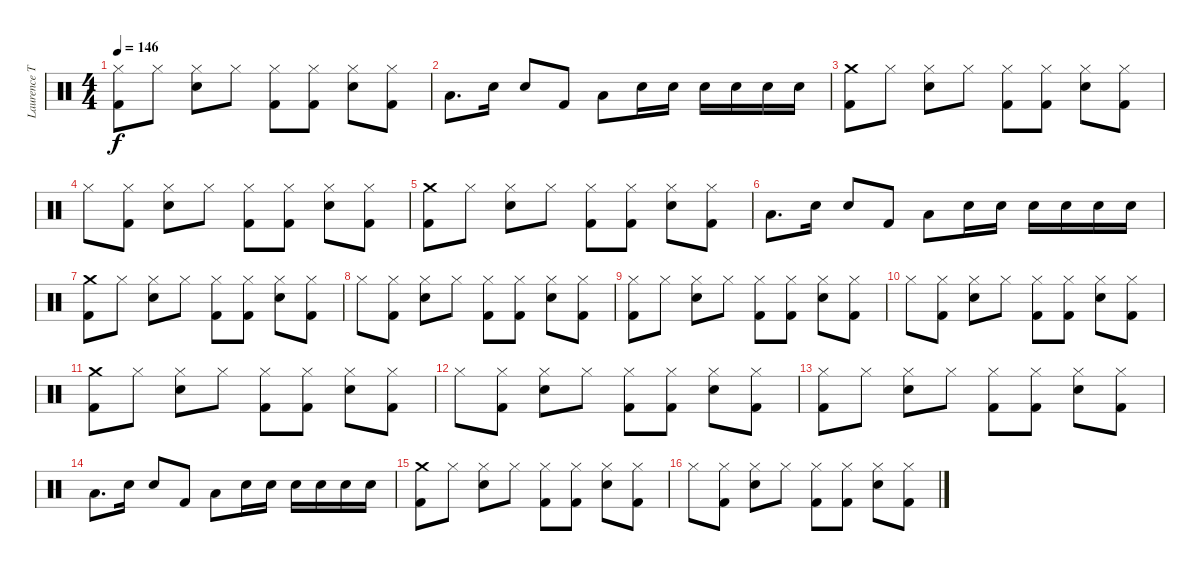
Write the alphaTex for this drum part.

\track ("Laurence Tolhurst drums" "Laurence T") {instrument percussion}
\staff {score}
\articulation defaults
\ts (4 4)
\tempo 146
\clef neutral
\ks c
("Hi-Hat (closed)" "Kick (hit) 2").8{dy f} "Hi-Hat (closed)".8 ("Hi-Hat (closed)" "Snare (hit) 2").8 "Hi-Hat (closed)".8 ("Hi-Hat (closed)" "Kick (hit) 2").8 ("Hi-Hat (closed)" "Kick (hit) 2").8 ("Hi-Hat (closed)" "Snare (hit) 2").8 ("Hi-Hat (closed)" "Kick (hit) 2").8 |
"Low Tom (hit)".8{d} "Snare (hit) 2".16 "Snare (hit) 2".8 "Kick (hit) 2".8 "Low Tom (hit)".8 "Snare (hit) 2".16 "Snare (hit) 2".16 "Snare (hit) 2".16 "Snare (hit) 2".16 "Snare (hit) 2".16 "Snare (hit) 2".16 |
("Crash medium (hit)" "Kick (hit) 2").8 "Hi-Hat (closed)".8 ("Hi-Hat (closed)" "Snare (hit) 2").8 "Hi-Hat (closed)".8 ("Hi-Hat (closed)" "Kick (hit) 2").8 ("Hi-Hat (closed)" "Kick (hit) 2").8 ("Hi-Hat (closed)" "Snare (hit) 2").8 ("Hi-Hat (closed)" "Kick (hit) 2").8 |
"Hi-Hat (closed)".8 ("Hi-Hat (closed)" "Kick (hit) 2").8 ("Hi-Hat (closed)" "Snare (hit) 2").8 "Hi-Hat (closed)".8 ("Hi-Hat (closed)" "Kick (hit) 2").8 ("Hi-Hat (closed)" "Kick (hit) 2").8 ("Hi-Hat (closed)" "Snare (hit) 2").8 ("Hi-Hat (closed)" "Kick (hit) 2").8 |
("Crash medium (hit)" "Kick (hit) 2").8 "Hi-Hat (closed)".8 ("Hi-Hat (closed)" "Snare (hit) 2").8 "Hi-Hat (closed)".8 ("Hi-Hat (closed)" "Kick (hit) 2").8 ("Hi-Hat (closed)" "Kick (hit) 2").8 ("Hi-Hat (closed)" "Snare (hit) 2").8 ("Hi-Hat (closed)" "Kick (hit) 2").8 |
"Low Tom (hit)".8{d} "Snare (hit) 2".16 "Snare (hit) 2".8 "Kick (hit) 2".8 "Low Tom (hit)".8 "Snare (hit) 2".16 "Snare (hit) 2".16 "Snare (hit) 2".16 "Snare (hit) 2".16 "Snare (hit) 2".16 "Snare (hit) 2".16 |
("Crash medium (hit)" "Kick (hit) 2").8 "Hi-Hat (closed)".8 ("Hi-Hat (closed)" "Snare (hit) 2").8 "Hi-Hat (closed)".8 ("Hi-Hat (closed)" "Kick (hit) 2").8 ("Hi-Hat (closed)" "Kick (hit) 2").8 ("Hi-Hat (closed)" "Snare (hit) 2").8 ("Hi-Hat (closed)" "Kick (hit) 2").8 |
"Hi-Hat (closed)".8 ("Hi-Hat (closed)" "Kick (hit) 2").8 ("Hi-Hat (closed)" "Snare (hit) 2").8 "Hi-Hat (closed)".8 ("Hi-Hat (closed)" "Kick (hit) 2").8 ("Hi-Hat (closed)" "Kick (hit) 2").8 ("Hi-Hat (closed)" "Snare (hit) 2").8 ("Hi-Hat (closed)" "Kick (hit) 2").8 |
("Hi-Hat (closed)" "Kick (hit) 2").8 "Hi-Hat (closed)".8 ("Hi-Hat (closed)" "Snare (hit) 2").8 "Hi-Hat (closed)".8 ("Hi-Hat (closed)" "Kick (hit) 2").8 ("Hi-Hat (closed)" "Kick (hit) 2").8 ("Hi-Hat (closed)" "Snare (hit) 2").8 ("Hi-Hat (closed)" "Kick (hit) 2").8 |
"Hi-Hat (closed)".8 ("Hi-Hat (closed)" "Kick (hit) 2").8 ("Hi-Hat (closed)" "Snare (hit) 2").8 "Hi-Hat (closed)".8 ("Hi-Hat (closed)" "Kick (hit) 2").8 ("Hi-Hat (closed)" "Kick (hit) 2").8 ("Hi-Hat (closed)" "Snare (hit) 2").8 ("Hi-Hat (closed)" "Kick (hit) 2").8 |
("Crash medium (hit)" "Kick (hit) 2").8 "Hi-Hat (closed)".8 ("Hi-Hat (closed)" "Snare (hit) 2").8 "Hi-Hat (closed)".8 ("Hi-Hat (closed)" "Kick (hit) 2").8 ("Hi-Hat (closed)" "Kick (hit) 2").8 ("Hi-Hat (closed)" "Snare (hit) 2").8 ("Hi-Hat (closed)" "Kick (hit) 2").8 |
"Hi-Hat (closed)".8 ("Hi-Hat (closed)" "Kick (hit) 2").8 ("Hi-Hat (closed)" "Snare (hit) 2").8 "Hi-Hat (closed)".8 ("Hi-Hat (closed)" "Kick (hit) 2").8 ("Hi-Hat (closed)" "Kick (hit) 2").8 ("Hi-Hat (closed)" "Snare (hit) 2").8 ("Hi-Hat (closed)" "Kick (hit) 2").8 |
("Hi-Hat (closed)" "Kick (hit) 2").8 "Hi-Hat (closed)".8 ("Hi-Hat (closed)" "Snare (hit) 2").8 "Hi-Hat (closed)".8 ("Hi-Hat (closed)" "Kick (hit) 2").8 ("Hi-Hat (closed)" "Kick (hit) 2").8 ("Hi-Hat (closed)" "Snare (hit) 2").8 ("Hi-Hat (closed)" "Kick (hit) 2").8 |
"Low Tom (hit)".8{d} "Snare (hit) 2".16 "Snare (hit) 2".8 "Kick (hit) 2".8 "Low Tom (hit)".8 "Snare (hit) 2".16 "Snare (hit) 2".16 "Snare (hit) 2".16 "Snare (hit) 2".16 "Snare (hit) 2".16 "Snare (hit) 2".16 |
("Crash medium (hit)" "Kick (hit) 2").8 "Hi-Hat (closed)".8 ("Hi-Hat (closed)" "Snare (hit) 2").8 "Hi-Hat (closed)".8 ("Hi-Hat (closed)" "Kick (hit) 2").8 ("Hi-Hat (closed)" "Kick (hit) 2").8 ("Hi-Hat (closed)" "Snare (hit) 2").8 ("Hi-Hat (closed)" "Kick (hit) 2").8 |
"Hi-Hat (closed)".8 ("Hi-Hat (closed)" "Kick (hit) 2").8 ("Hi-Hat (closed)" "Snare (hit) 2").8 "Hi-Hat (closed)".8 ("Hi-Hat (closed)" "Kick (hit) 2").8 ("Hi-Hat (closed)" "Kick (hit) 2").8 ("Hi-Hat (closed)" "Snare (hit) 2").8 ("Hi-Hat (closed)" "Kick (hit) 2").8
